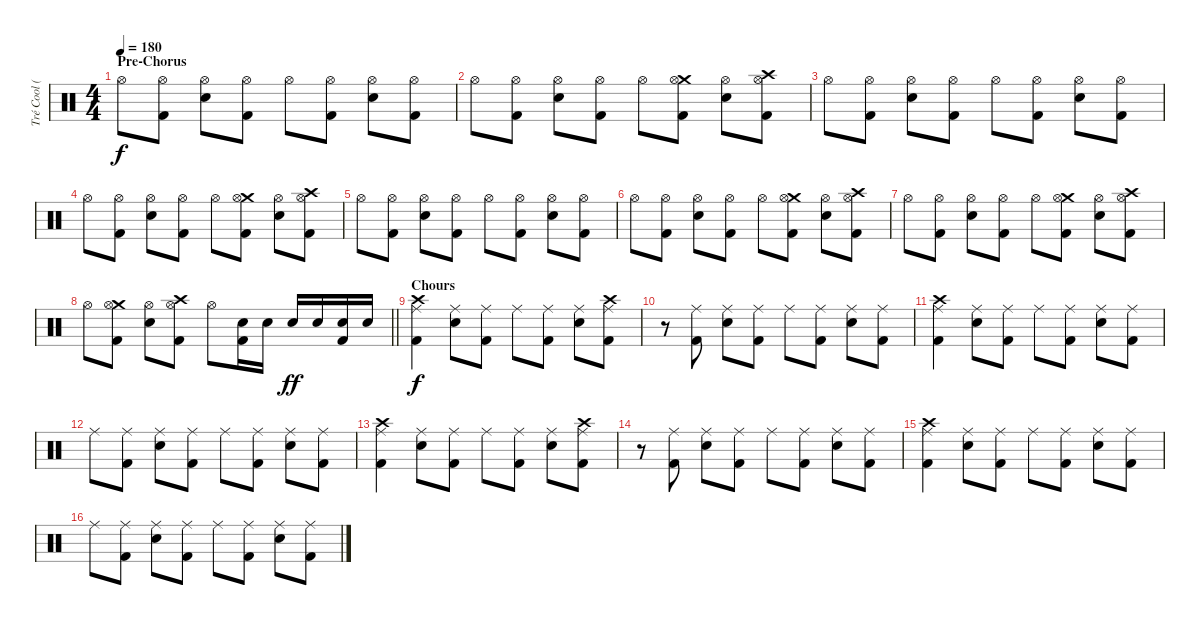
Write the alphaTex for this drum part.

\track ("Tré Cool (Drums)" "Tré Cool (") {instrument percussion}
\staff {score}
\articulation defaults
\ts (4 4)
\section ("" "Pre-Chorus")
\tempo 180
\clef neutral
\ks c "Hi-Hat (open)".8{dy f}
("Hi-Hat (open)" "Kick (hit) 2").8 ("Hi-Hat (open)" "Electric Snare (hit)").8 ("Hi-Hat (open)" "Kick (hit) 2").8 "Hi-Hat (open)".8 ("Hi-Hat (open)" "Kick (hit) 2").8 ("Hi-Hat (open)" "Electric Snare (hit)").8 ("Hi-Hat (open)" "Kick (hit) 2").8 |
"Hi-Hat (open)".8 ("Hi-Hat (open)" "Kick (hit) 2").8 ("Hi-Hat (open)" "Electric Snare (hit)").8 ("Hi-Hat (open)" "Kick (hit) 2").8 "Hi-Hat (open)".8 ("Crash medium (hit)" "Hi-Hat (open)" "Kick (hit) 2").8 ("Hi-Hat (open)" "Electric Snare (hit)").8 ("Crash high (hit)" "Hi-Hat (open)" "Kick (hit) 2").8 |
"Hi-Hat (open)".8 ("Hi-Hat (open)" "Kick (hit) 2").8 ("Hi-Hat (open)" "Electric Snare (hit)").8 ("Hi-Hat (open)" "Kick (hit) 2").8 "Hi-Hat (open)".8 ("Hi-Hat (open)" "Kick (hit) 2").8 ("Hi-Hat (open)" "Electric Snare (hit)").8 ("Hi-Hat (open)" "Kick (hit) 2").8 |
"Hi-Hat (open)".8 ("Hi-Hat (open)" "Kick (hit) 2").8 ("Hi-Hat (open)" "Electric Snare (hit)").8 ("Hi-Hat (open)" "Kick (hit) 2").8 "Hi-Hat (open)".8 ("Crash medium (hit)" "Hi-Hat (open)" "Kick (hit) 2").8 ("Hi-Hat (open)" "Electric Snare (hit)").8 ("Crash high (hit)" "Hi-Hat (open)" "Kick (hit) 2").8 |
"Hi-Hat (open)".8 ("Hi-Hat (open)" "Kick (hit) 2").8 ("Hi-Hat (open)" "Electric Snare (hit)").8 ("Hi-Hat (open)" "Kick (hit) 2").8 "Hi-Hat (open)".8 ("Hi-Hat (open)" "Kick (hit) 2").8 ("Hi-Hat (open)" "Electric Snare (hit)").8 ("Hi-Hat (open)" "Kick (hit) 2").8 |
"Hi-Hat (open)".8 ("Hi-Hat (open)" "Kick (hit) 2").8 ("Hi-Hat (open)" "Electric Snare (hit)").8 ("Hi-Hat (open)" "Kick (hit) 2").8 "Hi-Hat (open)".8 ("Crash medium (hit)" "Hi-Hat (open)" "Kick (hit) 2").8 ("Hi-Hat (open)" "Electric Snare (hit)").8 ("Crash high (hit)" "Hi-Hat (open)" "Kick (hit) 2").8 |
"Hi-Hat (open)".8 ("Hi-Hat (open)" "Kick (hit) 2").8 ("Hi-Hat (open)" "Electric Snare (hit)").8 ("Hi-Hat (open)" "Kick (hit) 2").8 "Hi-Hat (open)".8 ("Crash medium (hit)" "Hi-Hat (open)" "Kick (hit) 2").8 ("Hi-Hat (open)" "Electric Snare (hit)").8 ("Crash high (hit)" "Hi-Hat (open)" "Kick (hit) 2").8 |
\barLineRight lightlight "Hi-Hat (open)".8
("Crash medium (hit)" "Hi-Hat (open)" "Kick (hit) 2").8 ("Hi-Hat (open)" "Electric Snare (hit)").8 ("Crash high (hit)" "Hi-Hat (open)" "Kick (hit) 2").8 "Hi-Hat (open)".8 ("Electric Snare (hit)" "Kick (hit) 2").16 "Electric Snare (hit)".16 "Electric Snare (hit)".16{dy ff} "Electric Snare (hit)".16 ("Electric Snare (hit)" "Kick (hit) 2").16 "Electric Snare (hit)".16 |
\section ("" "Chours")
("Crash high (hit)" "Ride (middle)" "Kick (hit) 2").4{dy f} ("Ride (middle)" "Electric Snare (hit)").8 ("Ride (middle)" "Kick (hit) 2").8 "Ride (middle)".8 ("Ride (middle)" "Kick (hit) 2").8 ("Ride (middle)" "Electric Snare (hit)").8 ("Crash high (hit)" "Ride (middle)" "Kick (hit) 2").8 |
r.8 ("Ride (middle)" "Kick (hit) 2").8 ("Ride (middle)" "Electric Snare (hit)").8 ("Ride (middle)" "Kick (hit) 2").8 "Ride (middle)".8 ("Ride (middle)" "Kick (hit) 2").8 ("Ride (middle)" "Electric Snare (hit)").8 ("Ride (middle)" "Kick (hit) 2").8 |
("Crash high (hit)" "Ride (middle)" "Kick (hit) 2").4 ("Ride (middle)" "Electric Snare (hit)").8 ("Ride (middle)" "Kick (hit) 2").8 "Ride (middle)".8 ("Ride (middle)" "Kick (hit) 2").8 ("Ride (middle)" "Electric Snare (hit)").8 ("Ride (middle)" "Kick (hit) 2").8 |
"Ride (middle)".8 ("Ride (middle)" "Kick (hit) 2").8 ("Ride (middle)" "Electric Snare (hit)").8 ("Ride (middle)" "Kick (hit) 2").8 "Ride (middle)".8 ("Ride (middle)" "Kick (hit) 2").8 ("Ride (middle)" "Electric Snare (hit)").8 ("Ride (middle)" "Kick (hit) 2").8 |
("Crash high (hit)" "Ride (middle)" "Kick (hit) 2").4 ("Ride (middle)" "Electric Snare (hit)").8 ("Ride (middle)" "Kick (hit) 2").8 "Ride (middle)".8 ("Ride (middle)" "Kick (hit) 2").8 ("Ride (middle)" "Electric Snare (hit)").8 ("Crash high (hit)" "Ride (middle)" "Kick (hit) 2").8 |
r.8 ("Ride (middle)" "Kick (hit) 2").8 ("Ride (middle)" "Electric Snare (hit)").8 ("Ride (middle)" "Kick (hit) 2").8 "Ride (middle)".8 ("Ride (middle)" "Kick (hit) 2").8 ("Ride (middle)" "Electric Snare (hit)").8 ("Ride (middle)" "Kick (hit) 2").8 |
("Crash high (hit)" "Ride (middle)" "Kick (hit) 2").4 ("Ride (middle)" "Electric Snare (hit)").8 ("Ride (middle)" "Kick (hit) 2").8 "Ride (middle)".8 ("Ride (middle)" "Kick (hit) 2").8 ("Ride (middle)" "Electric Snare (hit)").8 ("Ride (middle)" "Kick (hit) 2").8 |
"Ride (middle)".8 ("Ride (middle)" "Kick (hit) 2").8 ("Ride (middle)" "Electric Snare (hit)").8 ("Ride (middle)" "Kick (hit) 2").8 "Ride (middle)".8 ("Ride (middle)" "Kick (hit) 2").8 ("Ride (middle)" "Electric Snare (hit)").8 ("Ride (middle)" "Kick (hit) 2").8
